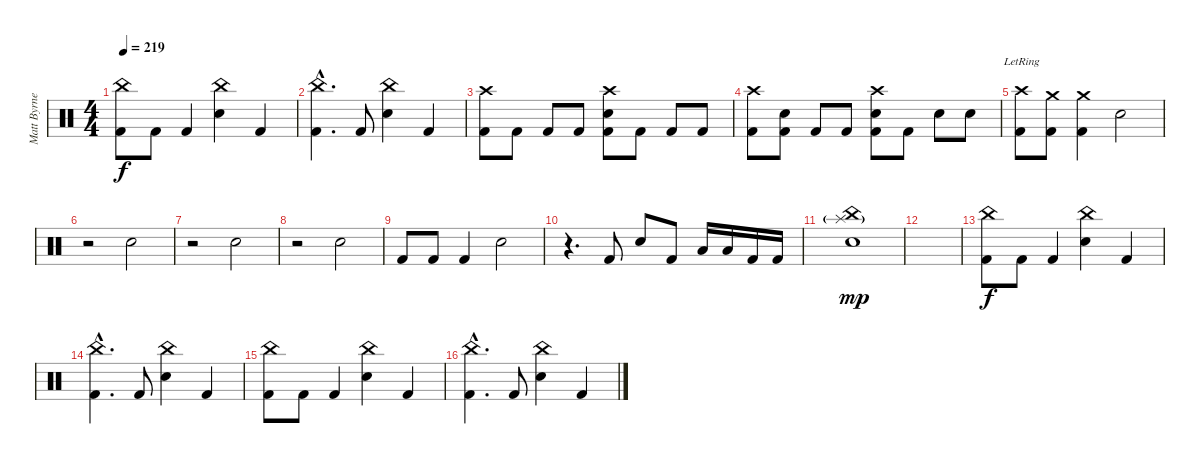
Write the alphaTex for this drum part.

\track ("Matt Byrne (Drums)" "Matt Byrne") {instrument percussion}
\staff {score}
\articulation defaults
\ts (4 4)
\tempo 219
\clef neutral
\ks c
("China (hit)" "Kick (hit) 2").8{dy f} "Kick (hit) 2".8 "Kick (hit) 2".4 ("China (hit)" "Snare (hit) 2").4 "Kick (hit) 2".4 |
("China (hit)"{hac} "Kick (hit) 2"{hac}).4{d} "Kick (hit) 2".8 ("China (hit)" "Snare (hit) 2").4 "Kick (hit) 2".4 |
("Crash high (hit)" "Kick (hit) 2").8 "Kick (hit) 2".8 "Kick (hit) 2".8 "Kick (hit) 2".8 ("Crash high (hit)" "Snare (hit) 2" "Kick (hit) 2").8 "Kick (hit) 2".8 "Kick (hit) 2".8 "Kick (hit) 2".8 |
("Crash high (hit)" "Kick (hit) 2").8 ("Snare (hit) 2" "Kick (hit) 2").8 "Kick (hit) 2".8 "Kick (hit) 2".8 ("Snare (hit) 2" "Crash high (hit)" "Kick (hit) 2").8 "Kick (hit) 2".8 "Snare (hit) 2".8 "Snare (hit) 2".8 |
("Crash high (hit)"{lr} "Kick (hit) 2").8 ("Crash medium (hit)" "Kick (hit) 2").8 ("Crash medium (hit)" "Kick (hit) 2").4 "Snare (hit) 2".2 |
r.2 "Snare (hit) 2".2 |
r.2 "Snare (hit) 2".2 |
r.2 "Snare (hit) 2".2 |
"Kick (hit) 2".8 "Kick (hit) 2".8 "Kick (hit) 2".4 "Snare (hit) 2".2 |
r.4{d} "Kick (hit) 2".8 "Snare (hit) 2".8 "Kick (hit) 2".8 "Low Tom (hit)".16 "Low Floor Tom (hit)".16 "Kick (hit) 2".16 "Kick (hit) 2".16 |
("Splash (hit)"{g} "China (hit)" "Snare (hit) 2").1{dy mp} |
|
("China (hit)" "Kick (hit) 2").8{dy f} "Kick (hit) 2".8 "Kick (hit) 2".4 ("China (hit)" "Snare (hit) 2").4 "Kick (hit) 2".4 |
("China (hit)"{hac} "Kick (hit) 2"{hac}).4{d} "Kick (hit) 2".8 ("China (hit)" "Snare (hit) 2").4 "Kick (hit) 2".4 |
("China (hit)" "Kick (hit) 2").8 "Kick (hit) 2".8 "Kick (hit) 2".4 ("China (hit)" "Snare (hit) 2").4 "Kick (hit) 2".4 |
("China (hit)"{hac} "Kick (hit) 2"{hac}).4{d} "Kick (hit) 2".8 ("China (hit)" "Snare (hit) 2").4 "Kick (hit) 2".4
